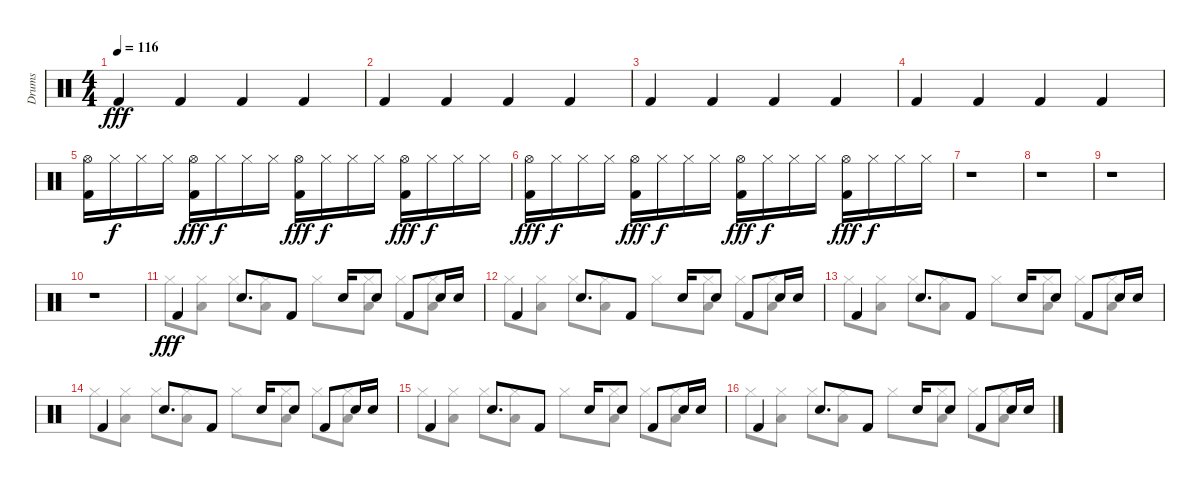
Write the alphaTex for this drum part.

\track ("Drums" "Drums") {instrument percussion}
\staff {score}
\articulation defaults
\voice
\ts (4 4)
\tempo 116
\clef neutral
\ks c "Kick (hit) 2".4{dy fff} "Kick (hit) 2".4 "Kick (hit) 2".4 "Kick (hit) 2".4
|
"Kick (hit) 2".4 "Kick (hit) 2".4 "Kick (hit) 2".4 "Kick (hit) 2".4 |
"Kick (hit) 2".4 "Kick (hit) 2".4 "Kick (hit) 2".4 "Kick (hit) 2".4 |
"Kick (hit) 2".4 "Kick (hit) 2".4 "Kick (hit) 2".4 "Kick (hit) 2".4 |
("Hi-Hat (open)" "Kick (hit) 2").16 "Hi-Hat (closed)".16{dy f} "Hi-Hat (closed)".16 "Hi-Hat (closed)".16 ("Hi-Hat (open)" "Kick (hit) 2").16{dy fff} "Hi-Hat (closed)".16{dy f} "Hi-Hat (closed)".16 "Hi-Hat (closed)".16 ("Hi-Hat (open)" "Kick (hit) 2").16{dy fff} "Hi-Hat (closed)".16{dy f} "Hi-Hat (closed)".16 "Hi-Hat (closed)".16 ("Hi-Hat (open)" "Kick (hit) 2").16{dy fff} "Hi-Hat (closed)".16{dy f} "Hi-Hat (closed)".16 "Hi-Hat (closed)".16 |
("Hi-Hat (open)" "Kick (hit) 2").16{dy fff} "Hi-Hat (closed)".16{dy f} "Hi-Hat (closed)".16 "Hi-Hat (closed)".16 ("Hi-Hat (open)" "Kick (hit) 2").16{dy fff} "Hi-Hat (closed)".16{dy f} "Hi-Hat (closed)".16 "Hi-Hat (closed)".16 ("Hi-Hat (open)" "Kick (hit) 2").16{dy fff} "Hi-Hat (closed)".16{dy f} "Hi-Hat (closed)".16 "Hi-Hat (closed)".16 ("Hi-Hat (open)" "Kick (hit) 2").16{dy fff} "Hi-Hat (closed)".16{dy f} "Hi-Hat (closed)".16 "Hi-Hat (closed)".16 |
r.1 |
r.1 |
r.1 |
r.1 |
"Kick (hit) 2".4{dy fff} "Electric Snare (hit)".8{d} "Kick (hit) 2".8 "Electric Snare (hit)".16 "Electric Snare (hit)".8 "Kick (hit) 2".8 "Electric Snare (hit)".16 "Electric Snare (hit)".16 |
"Kick (hit) 2".4 "Electric Snare (hit)".8{d} "Kick (hit) 2".8 "Electric Snare (hit)".16 "Electric Snare (hit)".8 "Kick (hit) 2".8 "Electric Snare (hit)".16 "Electric Snare (hit)".16 |
"Kick (hit) 2".4 "Electric Snare (hit)".8{d} "Kick (hit) 2".8 "Electric Snare (hit)".16 "Electric Snare (hit)".8 "Kick (hit) 2".8 "Electric Snare (hit)".16 "Electric Snare (hit)".16 |
"Kick (hit) 2".4 "Electric Snare (hit)".8{d} "Kick (hit) 2".8 "Electric Snare (hit)".16 "Electric Snare (hit)".8 "Kick (hit) 2".8 "Electric Snare (hit)".16 "Electric Snare (hit)".16 |
"Kick (hit) 2".4 "Electric Snare (hit)".8{d} "Kick (hit) 2".8 "Electric Snare (hit)".16 "Electric Snare (hit)".8 "Kick (hit) 2".8 "Electric Snare (hit)".16 "Electric Snare (hit)".16 |
"Kick (hit) 2".4 "Electric Snare (hit)".8{d} "Kick (hit) 2".8 "Electric Snare (hit)".16 "Electric Snare (hit)".8 "Kick (hit) 2".8 "Electric Snare (hit)".16 "Electric Snare (hit)".16
\voice
\clef neutral
\ottava regular
\simile none
\ks c
|
|
|
|
|
|
|
|
|
|
"Hi-Hat (closed)".8 ("Hi-Hat (closed)" "Low Floor Tom (hit)").8 "Hi-Hat (closed)".8 ("Hi-Hat (closed)" "Low Floor Tom (hit)").8 "Hi-Hat (closed)".8 ("Hi-Hat (closed)" "Low Floor Tom (hit)").8 "Hi-Hat (closed)".8 ("Hi-Hat (closed)" "Low Floor Tom (hit)").8 |
"Hi-Hat (closed)".8 ("Hi-Hat (closed)" "Low Floor Tom (hit)").8 "Hi-Hat (closed)".8 ("Hi-Hat (closed)" "Low Floor Tom (hit)").8 "Hi-Hat (closed)".8 ("Hi-Hat (closed)" "Low Floor Tom (hit)").8 "Hi-Hat (closed)".8 ("Hi-Hat (closed)" "Low Floor Tom (hit)").8 |
"Hi-Hat (closed)".8 ("Hi-Hat (closed)" "Low Floor Tom (hit)").8 "Hi-Hat (closed)".8 ("Hi-Hat (closed)" "Low Floor Tom (hit)").8 "Hi-Hat (closed)".8 ("Hi-Hat (closed)" "Low Floor Tom (hit)").8 "Hi-Hat (closed)".8 ("Hi-Hat (closed)" "Low Floor Tom (hit)").8 |
"Hi-Hat (closed)".8 ("Hi-Hat (closed)" "Low Floor Tom (hit)").8 "Hi-Hat (closed)".8 ("Hi-Hat (closed)" "Low Floor Tom (hit)").8 "Hi-Hat (closed)".8 ("Hi-Hat (closed)" "Low Floor Tom (hit)").8 "Hi-Hat (closed)".8 ("Hi-Hat (closed)" "Low Floor Tom (hit)").8 |
"Hi-Hat (closed)".8 ("Hi-Hat (closed)" "Low Floor Tom (hit)").8 "Hi-Hat (closed)".8 ("Hi-Hat (closed)" "Low Floor Tom (hit)").8 "Hi-Hat (closed)".8 ("Hi-Hat (closed)" "Low Floor Tom (hit)").8 "Hi-Hat (closed)".8 ("Hi-Hat (closed)" "Low Floor Tom (hit)").8 |
"Hi-Hat (closed)".8 ("Hi-Hat (closed)" "Low Floor Tom (hit)").8 "Hi-Hat (closed)".8 ("Hi-Hat (closed)" "Low Floor Tom (hit)").8 "Hi-Hat (closed)".8 ("Hi-Hat (closed)" "Low Floor Tom (hit)").8 "Hi-Hat (closed)".8 ("Hi-Hat (closed)" "Low Floor Tom (hit)").8
